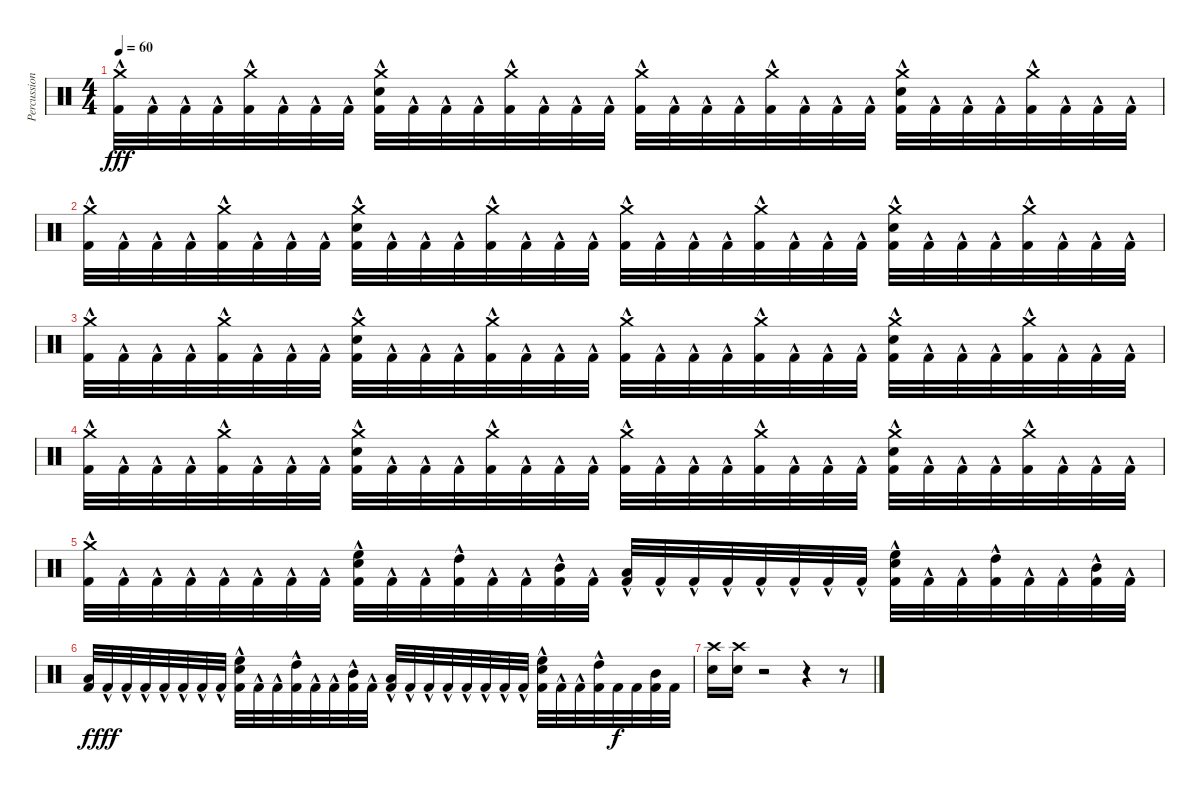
\track ("Percussion" "Percussion") {instrument percussion}
\staff {score}
\articulation defaults
\ts (4 4)
\tempo 60
\clef neutral
\ks c
("Kick (hit) 2"{hac} "Crash medium (hit)"{hac}).32{dy fff} "Kick (hit) 2"{hac}.32 "Kick (hit) 2"{hac}.32 "Kick (hit) 2"{hac}.32 ("Kick (hit) 2"{hac} "Crash medium (hit)"{hac}).32 "Kick (hit) 2"{hac}.32 "Kick (hit) 2"{hac}.32 "Kick (hit) 2"{hac}.32 ("Kick (hit) 2"{hac} "Electric Snare (hit)"{hac} "Crash medium (hit)"{hac}).32 "Kick (hit) 2"{hac}.32 "Kick (hit) 2"{hac}.32 "Kick (hit) 2"{hac}.32 ("Kick (hit) 2"{hac} "Crash medium (hit)"{hac}).32 "Kick (hit) 2"{hac}.32 "Kick (hit) 2"{hac}.32 "Kick (hit) 2"{hac}.32 ("Kick (hit) 2"{hac} "Crash medium (hit)"{hac}).32 "Kick (hit) 2"{hac}.32 "Kick (hit) 2"{hac}.32 "Kick (hit) 2"{hac}.32 ("Kick (hit) 2"{hac} "Crash medium (hit)"{hac}).32 "Kick (hit) 2"{hac}.32 "Kick (hit) 2"{hac}.32 "Kick (hit) 2"{hac}.32 ("Kick (hit) 2"{hac} "Electric Snare (hit)"{hac} "Crash medium (hit)"{hac}).32 "Kick (hit) 2"{hac}.32 "Kick (hit) 2"{hac}.32 "Kick (hit) 2"{hac}.32 ("Kick (hit) 2"{hac} "Crash medium (hit)"{hac}).32 "Kick (hit) 2"{hac}.32 "Kick (hit) 2"{hac}.32 "Kick (hit) 2"{hac}.32 |
("Kick (hit) 2"{hac} "Crash medium (hit)"{hac}).32 "Kick (hit) 2"{hac}.32 "Kick (hit) 2"{hac}.32 "Kick (hit) 2"{hac}.32 ("Kick (hit) 2"{hac} "Crash medium (hit)"{hac}).32 "Kick (hit) 2"{hac}.32 "Kick (hit) 2"{hac}.32 "Kick (hit) 2"{hac}.32 ("Kick (hit) 2"{hac} "Electric Snare (hit)"{hac} "Crash medium (hit)"{hac}).32 "Kick (hit) 2"{hac}.32 "Kick (hit) 2"{hac}.32 "Kick (hit) 2"{hac}.32 ("Kick (hit) 2"{hac} "Crash medium (hit)"{hac}).32 "Kick (hit) 2"{hac}.32 "Kick (hit) 2"{hac}.32 "Kick (hit) 2"{hac}.32 ("Kick (hit) 2"{hac} "Crash medium (hit)"{hac}).32 "Kick (hit) 2"{hac}.32 "Kick (hit) 2"{hac}.32 "Kick (hit) 2"{hac}.32 ("Kick (hit) 2"{hac} "Crash medium (hit)"{hac}).32 "Kick (hit) 2"{hac}.32 "Kick (hit) 2"{hac}.32 "Kick (hit) 2"{hac}.32 ("Kick (hit) 2"{hac} "Electric Snare (hit)"{hac} "Crash medium (hit)"{hac}).32 "Kick (hit) 2"{hac}.32 "Kick (hit) 2"{hac}.32 "Kick (hit) 2"{hac}.32 ("Kick (hit) 2"{hac} "Crash medium (hit)"{hac}).32 "Kick (hit) 2"{hac}.32 "Kick (hit) 2"{hac}.32 "Kick (hit) 2"{hac}.32 |
("Kick (hit) 2"{hac} "Crash medium (hit)"{hac}).32 "Kick (hit) 2"{hac}.32 "Kick (hit) 2"{hac}.32 "Kick (hit) 2"{hac}.32 ("Kick (hit) 2"{hac} "Crash medium (hit)"{hac}).32 "Kick (hit) 2"{hac}.32 "Kick (hit) 2"{hac}.32 "Kick (hit) 2"{hac}.32 ("Kick (hit) 2"{hac} "Electric Snare (hit)"{hac} "Crash medium (hit)"{hac}).32 "Kick (hit) 2"{hac}.32 "Kick (hit) 2"{hac}.32 "Kick (hit) 2"{hac}.32 ("Kick (hit) 2"{hac} "Crash medium (hit)"{hac}).32 "Kick (hit) 2"{hac}.32 "Kick (hit) 2"{hac}.32 "Kick (hit) 2"{hac}.32 ("Kick (hit) 2"{hac} "Crash medium (hit)"{hac}).32 "Kick (hit) 2"{hac}.32 "Kick (hit) 2"{hac}.32 "Kick (hit) 2"{hac}.32 ("Kick (hit) 2"{hac} "Crash medium (hit)"{hac}).32 "Kick (hit) 2"{hac}.32 "Kick (hit) 2"{hac}.32 "Kick (hit) 2"{hac}.32 ("Kick (hit) 2"{hac} "Electric Snare (hit)"{hac} "Crash medium (hit)"{hac}).32 "Kick (hit) 2"{hac}.32 "Kick (hit) 2"{hac}.32 "Kick (hit) 2"{hac}.32 ("Kick (hit) 2"{hac} "Crash medium (hit)"{hac}).32 "Kick (hit) 2"{hac}.32 "Kick (hit) 2"{hac}.32 "Kick (hit) 2"{hac}.32 |
("Kick (hit) 2"{hac} "Crash medium (hit)"{hac}).32 "Kick (hit) 2"{hac}.32 "Kick (hit) 2"{hac}.32 "Kick (hit) 2"{hac}.32 ("Kick (hit) 2"{hac} "Crash medium (hit)"{hac}).32 "Kick (hit) 2"{hac}.32 "Kick (hit) 2"{hac}.32 "Kick (hit) 2"{hac}.32 ("Kick (hit) 2"{hac} "Electric Snare (hit)"{hac} "Crash medium (hit)"{hac}).32 "Kick (hit) 2"{hac}.32 "Kick (hit) 2"{hac}.32 "Kick (hit) 2"{hac}.32 ("Kick (hit) 2"{hac} "Crash medium (hit)"{hac}).32 "Kick (hit) 2"{hac}.32 "Kick (hit) 2"{hac}.32 "Kick (hit) 2"{hac}.32 ("Kick (hit) 2"{hac} "Crash medium (hit)"{hac}).32 "Kick (hit) 2"{hac}.32 "Kick (hit) 2"{hac}.32 "Kick (hit) 2"{hac}.32 ("Kick (hit) 2"{hac} "Crash medium (hit)"{hac}).32 "Kick (hit) 2"{hac}.32 "Kick (hit) 2"{hac}.32 "Kick (hit) 2"{hac}.32 ("Kick (hit) 2"{hac} "Electric Snare (hit)"{hac} "Crash medium (hit)"{hac}).32 "Kick (hit) 2"{hac}.32 "Kick (hit) 2"{hac}.32 "Kick (hit) 2"{hac}.32 ("Kick (hit) 2"{hac} "Crash medium (hit)"{hac}).32 "Kick (hit) 2"{hac}.32 "Kick (hit) 2"{hac}.32 "Kick (hit) 2"{hac}.32 |
("Kick (hit) 2"{hac} "Crash medium (hit)").32 "Kick (hit) 2"{hac}.32 "Kick (hit) 2"{hac}.32 "Kick (hit) 2"{hac}.32 "Kick (hit) 2"{hac}.32 "Kick (hit) 2"{hac}.32 "Kick (hit) 2"{hac}.32 "Kick (hit) 2"{hac}.32 ("Kick (hit) 2"{hac} "High Floor Tom (hit)" "Electric Snare (hit)").32 "Kick (hit) 2"{hac}.32 "Kick (hit) 2"{hac}.32 ("Kick (hit) 2"{hac} "High Tom (hit)").32 "Kick (hit) 2"{hac}.32 "Kick (hit) 2"{hac}.32 ("Kick (hit) 2"{hac} "Mid Tom (hit)").32 "Kick (hit) 2"{hac}.32 ("Kick (hit) 2"{hac} "Low Tom (hit)").32 "Kick (hit) 2"{hac}.32 "Kick (hit) 2"{hac}.32 "Kick (hit) 2"{hac}.32 "Kick (hit) 2"{hac}.32 "Kick (hit) 2"{hac}.32 "Kick (hit) 2"{hac}.32 "Kick (hit) 2"{hac}.32 ("Kick (hit) 2"{hac} "High Floor Tom (hit)" "Electric Snare (hit)").32 "Kick (hit) 2"{hac}.32 "Kick (hit) 2"{hac}.32 ("Kick (hit) 2"{hac} "High Tom (hit)").32 "Kick (hit) 2"{hac}.32 "Kick (hit) 2"{hac}.32 ("Kick (hit) 2"{hac} "Mid Tom (hit)").32 "Kick (hit) 2"{hac}.32 |
("Kick (hit) 2" "Low Tom (hit)").32{dy f} "Kick (hit) 2"{hac}.32{dy fff} "Kick (hit) 2"{hac}.32 "Kick (hit) 2"{hac}.32 "Kick (hit) 2"{hac}.32 "Kick (hit) 2"{hac}.32 "Kick (hit) 2"{hac}.32 "Kick (hit) 2"{hac}.32 ("Kick (hit) 2"{hac} "High Floor Tom (hit)" "Electric Snare (hit)").32 "Kick (hit) 2"{hac}.32 "Kick (hit) 2"{hac}.32 ("Kick (hit) 2"{hac} "High Tom (hit)").32 "Kick (hit) 2"{hac}.32 "Kick (hit) 2"{hac}.32 ("Kick (hit) 2"{hac} "Mid Tom (hit)").32 "Kick (hit) 2"{hac}.32 ("Kick (hit) 2"{hac} "Low Tom (hit)").32 "Kick (hit) 2"{hac}.32 "Kick (hit) 2"{hac}.32 "Kick (hit) 2"{hac}.32 "Kick (hit) 2"{hac}.32 "Kick (hit) 2"{hac}.32 "Kick (hit) 2"{hac}.32 "Kick (hit) 2"{hac}.32 ("Kick (hit) 2"{hac} "High Floor Tom (hit)" "Electric Snare (hit)").32 "Kick (hit) 2"{hac}.32 "Kick (hit) 2"{hac}.32 ("Kick (hit) 2"{hac} "High Tom (hit)").32 "Kick (hit) 2".32{dy f} "Kick (hit) 2".32 ("Kick (hit) 2" "Mid Tom (hit)").32 "Kick (hit) 2".32 |
("Electric Snare (hit)" "Crash high (hit)").16 ("Electric Snare (hit)" "Crash high (hit)").16 r.2 r.4 r.8
